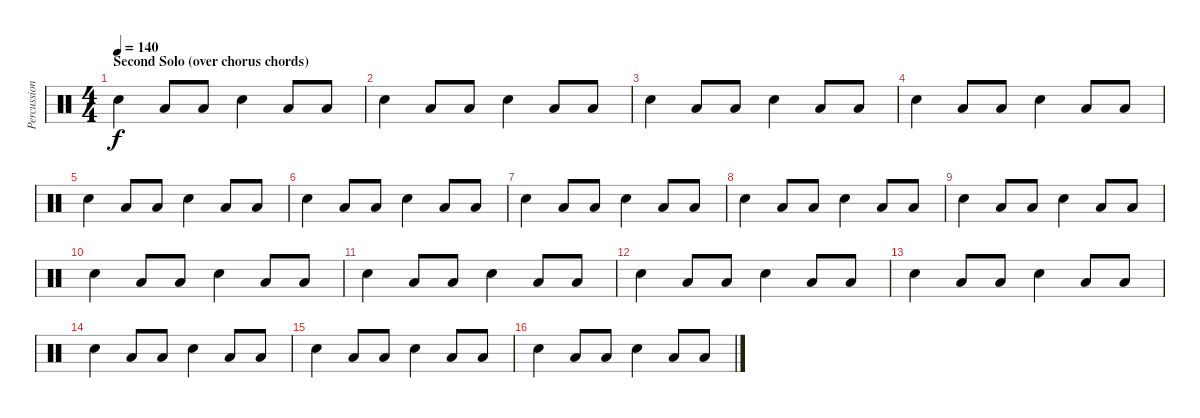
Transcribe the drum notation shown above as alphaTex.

\track ("Percussion" "Percussion") {instrument percussion}
\staff {score}
\articulation defaults
\ts (4 4)
\section ("" "Second Solo (over chorus chords)")
\tempo 140
\clef neutral
\ks c "Electric Snare (hit)".4{dy f} "Low Floor Tom (hit)".8 "Low Floor Tom (hit)".8 "Electric Snare (hit)".4 "Low Floor Tom (hit)".8 "Low Floor Tom (hit)".8
|
"Electric Snare (hit)".4 "Low Floor Tom (hit)".8 "Low Floor Tom (hit)".8 "Electric Snare (hit)".4 "Low Floor Tom (hit)".8 "Low Floor Tom (hit)".8 |
"Electric Snare (hit)".4 "Low Floor Tom (hit)".8 "Low Floor Tom (hit)".8 "Electric Snare (hit)".4 "Low Floor Tom (hit)".8 "Low Floor Tom (hit)".8 |
"Electric Snare (hit)".4 "Low Floor Tom (hit)".8 "Low Floor Tom (hit)".8 "Electric Snare (hit)".4 "Low Floor Tom (hit)".8 "Low Floor Tom (hit)".8 |
"Electric Snare (hit)".4 "Low Floor Tom (hit)".8 "Low Floor Tom (hit)".8 "Electric Snare (hit)".4 "Low Floor Tom (hit)".8 "Low Floor Tom (hit)".8 |
"Electric Snare (hit)".4 "Low Floor Tom (hit)".8 "Low Floor Tom (hit)".8 "Electric Snare (hit)".4 "Low Floor Tom (hit)".8 "Low Floor Tom (hit)".8 |
"Electric Snare (hit)".4 "Low Floor Tom (hit)".8 "Low Floor Tom (hit)".8 "Electric Snare (hit)".4 "Low Floor Tom (hit)".8 "Low Floor Tom (hit)".8 |
"Electric Snare (hit)".4 "Low Floor Tom (hit)".8 "Low Floor Tom (hit)".8 "Electric Snare (hit)".4 "Low Floor Tom (hit)".8 "Low Floor Tom (hit)".8 |
"Electric Snare (hit)".4 "Low Floor Tom (hit)".8 "Low Floor Tom (hit)".8 "Electric Snare (hit)".4 "Low Floor Tom (hit)".8 "Low Floor Tom (hit)".8 |
"Electric Snare (hit)".4 "Low Floor Tom (hit)".8 "Low Floor Tom (hit)".8 "Electric Snare (hit)".4 "Low Floor Tom (hit)".8 "Low Floor Tom (hit)".8 |
"Electric Snare (hit)".4 "Low Floor Tom (hit)".8 "Low Floor Tom (hit)".8 "Electric Snare (hit)".4 "Low Floor Tom (hit)".8 "Low Floor Tom (hit)".8 |
"Electric Snare (hit)".4 "Low Floor Tom (hit)".8 "Low Floor Tom (hit)".8 "Electric Snare (hit)".4 "Low Floor Tom (hit)".8 "Low Floor Tom (hit)".8 |
"Electric Snare (hit)".4 "Low Floor Tom (hit)".8 "Low Floor Tom (hit)".8 "Electric Snare (hit)".4 "Low Floor Tom (hit)".8 "Low Floor Tom (hit)".8 |
"Electric Snare (hit)".4 "Low Floor Tom (hit)".8 "Low Floor Tom (hit)".8 "Electric Snare (hit)".4 "Low Floor Tom (hit)".8 "Low Floor Tom (hit)".8 |
"Electric Snare (hit)".4 "Low Floor Tom (hit)".8 "Low Floor Tom (hit)".8 "Electric Snare (hit)".4 "Low Floor Tom (hit)".8 "Low Floor Tom (hit)".8 |
"Electric Snare (hit)".4 "Low Floor Tom (hit)".8 "Low Floor Tom (hit)".8 "Electric Snare (hit)".4 "Low Floor Tom (hit)".8 "Low Floor Tom (hit)".8
